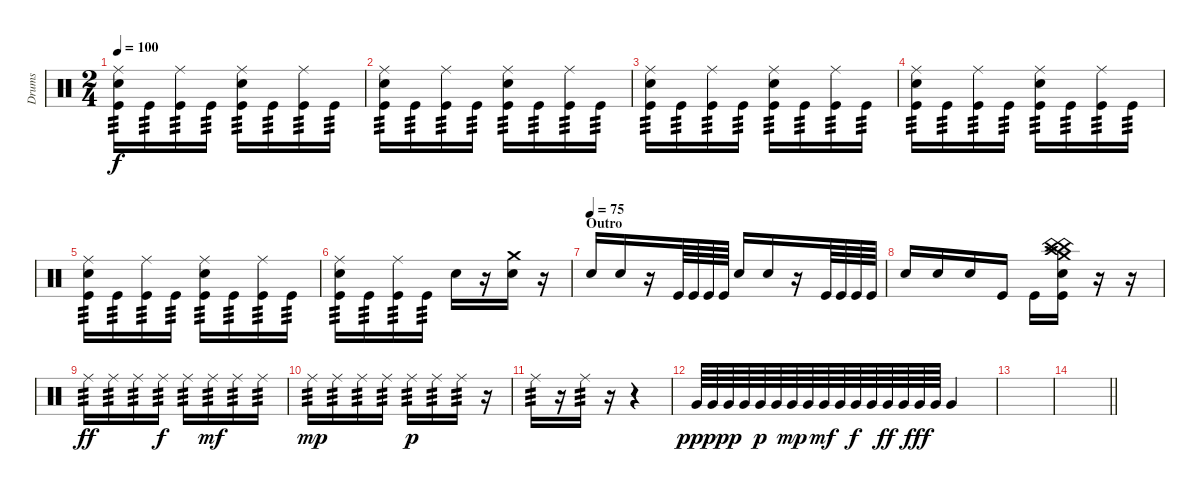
\track ("Drums" "Drums") {instrument percussion}
\staff {score}
\articulation defaults
\ts (2 4)
\tempo 100
\clef neutral
\ks c
("Kick (hit)" "Ride (middle)" "Electric Snare (hit)").16{tp 3 dy f} "Kick (hit)".16{tp 3} ("Kick (hit)" "Ride (middle)").16{tp 3} "Kick (hit)".16{tp 3} ("Kick (hit)" "Ride (middle)" "Electric Snare (hit)").16{tp 3} "Kick (hit)".16{tp 3} ("Kick (hit)" "Ride (middle)").16{tp 3} "Kick (hit)".16{tp 3} |
("Kick (hit)" "Ride (middle)" "Electric Snare (hit)").16{tp 3} "Kick (hit)".16{tp 3} ("Kick (hit)" "Ride (middle)").16{tp 3} "Kick (hit)".16{tp 3} ("Kick (hit)" "Ride (middle)" "Electric Snare (hit)").16{tp 3} "Kick (hit)".16{tp 3} ("Kick (hit)" "Ride (middle)").16{tp 3} "Kick (hit)".16{tp 3} |
("Kick (hit)" "Ride (middle)" "Electric Snare (hit)").16{tp 3} "Kick (hit)".16{tp 3} ("Kick (hit)" "Ride (middle)").16{tp 3} "Kick (hit)".16{tp 3} ("Kick (hit)" "Ride (middle)" "Electric Snare (hit)").16{tp 3} "Kick (hit)".16{tp 3} ("Kick (hit)" "Ride (middle)").16{tp 3} "Kick (hit)".16{tp 3} |
("Kick (hit)" "Ride (middle)" "Electric Snare (hit)").16{tp 3} "Kick (hit)".16{tp 3} ("Kick (hit)" "Ride (middle)").16{tp 3} "Kick (hit)".16{tp 3} ("Kick (hit)" "Ride (middle)" "Electric Snare (hit)").16{tp 3} "Kick (hit)".16{tp 3} ("Kick (hit)" "Ride (middle)").16{tp 3} "Kick (hit)".16{tp 3} |
("Kick (hit)" "Ride (middle)" "Electric Snare (hit)").16{tp 3} "Kick (hit)".16{tp 3} ("Kick (hit)" "Ride (middle)").16{tp 3} "Kick (hit)".16{tp 3} ("Kick (hit)" "Ride (middle)" "Electric Snare (hit)").16{tp 3} "Kick (hit)".16{tp 3} ("Kick (hit)" "Ride (middle)").16{tp 3} "Kick (hit)".16{tp 3} |
("Kick (hit)" "Ride (middle)" "Electric Snare (hit)").16{tp 3} "Kick (hit)".16{tp 3} ("Kick (hit)" "Ride (middle)").16{tp 3} "Kick (hit)".16{tp 3} "Electric Snare (hit)".16 r.16 ("Crash medium (hit)" "Electric Snare (hit)").16 r.16 |
\section ("" "Outro")
\tempo (75)
"Electric Snare (hit)".16 "Electric Snare (hit)".16 r.16 "Kick (hit)".64 "Kick (hit)".64 "Kick (hit)".64 "Kick (hit)".64 "Electric Snare (hit)".16 "Electric Snare (hit)".16 r.16 "Kick (hit)".64 "Kick (hit)".64 "Kick (hit)".64 "Kick (hit)".64 |
"Electric Snare (hit)".16 "Electric Snare (hit)".16 "Electric Snare (hit)".16 "Kick (hit)".16 "Kick (hit)".16 ("Crash medium (hit)" "Kick (hit)" "Crash high (hit)" "Electric Snare (hit)" "China (hit)" "China (hit)").16 r.16 r.16 |
"Ride (middle)".16{tp 3 dy ff} "Ride (middle)".16{tp 3} "Ride (middle)".16{tp 3} "Ride (middle)".16{tp 3 dy f} "Ride (middle)".16{tp 3} "Ride (middle)".16{tp 3 dy mf} "Ride (middle)".16{tp 3} "Ride (middle)".16{tp 3} |
"Ride (middle)".16{tp 3 dy mp} "Ride (middle)".16{tp 3} "Ride (middle)".16{tp 3} "Ride (middle)".16{tp 3} "Ride (middle)".16{tp 3 dy p} "Ride (middle)".16{tp 3} "Ride (middle)".16{tp 3} r.16 |
"Ride (middle)".16{tp 3} r.16 "Ride (middle)".16{tp 3} r.16 r.4 |
"Very Low Tom (hit)".64{dy ppp} "Very Low Tom (hit)".64 "Very Low Tom (hit)".64{dy pp} "Very Low Tom (hit)".64 "Very Low Tom (hit)".64{dy p} "Very Low Tom (hit)".64 "Very Low Tom (hit)".64{dy mp} "Very Low Tom (hit)".64 "Very Low Tom (hit)".64{dy mf} "Very Low Tom (hit)".64 "Very Low Tom (hit)".64{dy f} "Very Low Tom (hit)".64 "Very Low Tom (hit)".64{dy ff} "Very Low Tom (hit)".64 "Very Low Tom (hit)".64{dy fff} "Very Low Tom (hit)".64 "Very Low Tom (hit)".4 |
|
\barLineRight lightlight
